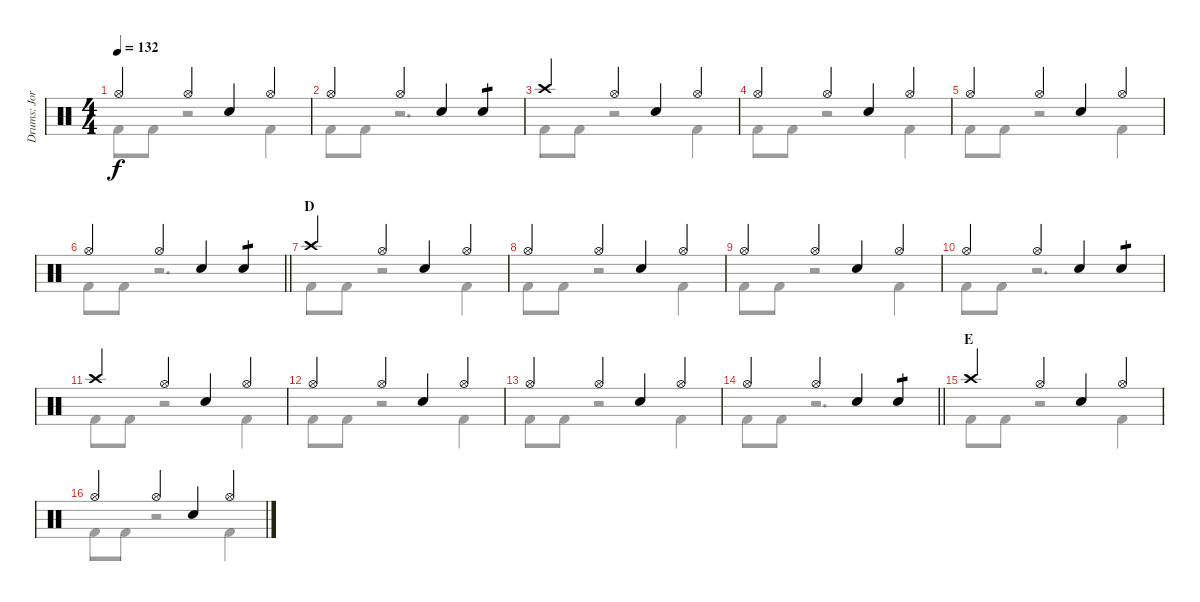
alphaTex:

\track ("Drums: Jorg" "Drums: Jor") {instrument percussion}
\staff {score}
\articulation defaults
\voice
\ts (4 4)
\tempo 132
\clef neutral
\ks c "Hi-Hat (open)".4{dy f} "Hi-Hat (open)".4 "Snare (hit) 2".4 "Hi-Hat (open)".4
|
"Hi-Hat (open)".4 "Hi-Hat (open)".4 "Snare (hit) 2".4 "Snare (hit) 2".4{tp 1} |
"Crash high (hit)".4 "Hi-Hat (open)".4 "Snare (hit) 2".4 "Hi-Hat (open)".4 |
"Hi-Hat (open)".4 "Hi-Hat (open)".4 "Snare (hit) 2".4 "Hi-Hat (open)".4 |
"Hi-Hat (open)".4 "Hi-Hat (open)".4 "Snare (hit) 2".4 "Hi-Hat (open)".4 |
\barLineRight lightlight "Hi-Hat (open)".4 "Hi-Hat (open)".4 "Snare (hit) 2".4 "Snare (hit) 2".4{tp 1}
|
\section ("" "D")
"Crash high (hit)".4 "Hi-Hat (open)".4 "Snare (hit) 2".4 "Hi-Hat (open)".4 |
"Hi-Hat (open)".4 "Hi-Hat (open)".4 "Snare (hit) 2".4 "Hi-Hat (open)".4 |
"Hi-Hat (open)".4 "Hi-Hat (open)".4 "Snare (hit) 2".4 "Hi-Hat (open)".4 |
"Hi-Hat (open)".4 "Hi-Hat (open)".4 "Snare (hit) 2".4 "Snare (hit) 2".4{tp 1} |
"Crash high (hit)".4 "Hi-Hat (open)".4 "Snare (hit) 2".4 "Hi-Hat (open)".4 |
"Hi-Hat (open)".4 "Hi-Hat (open)".4 "Snare (hit) 2".4 "Hi-Hat (open)".4 |
"Hi-Hat (open)".4 "Hi-Hat (open)".4 "Snare (hit) 2".4 "Hi-Hat (open)".4 |
\barLineRight lightlight "Hi-Hat (open)".4 "Hi-Hat (open)".4 "Snare (hit) 2".4 "Snare (hit) 2".4{tp 1}
|
\section ("" "E")
"Crash high (hit)".4 "Hi-Hat (open)".4 "Snare (hit) 2".4 "Hi-Hat (open)".4 |
"Hi-Hat (open)".4 "Hi-Hat (open)".4 "Snare (hit) 2".4 "Hi-Hat (open)".4
\voice
\clef neutral
\ottava regular
\simile none
\ks c "Kick (hit) 2".8{dy f} "Kick (hit) 2".8
r.2 "Kick (hit) 2".4 |
"Kick (hit) 2".8 "Kick (hit) 2".8 r.2{d} |
"Kick (hit) 2".8 "Kick (hit) 2".8 r.2 "Kick (hit) 2".4 |
"Kick (hit) 2".8 "Kick (hit) 2".8 r.2 "Kick (hit) 2".4 |
"Kick (hit) 2".8 "Kick (hit) 2".8 r.2 "Kick (hit) 2".4 |
\barLineRight lightlight "Kick (hit) 2".8 "Kick (hit) 2".8
r.2{d} |
"Kick (hit) 2".8 "Kick (hit) 2".8 r.2 "Kick (hit) 2".4 |
"Kick (hit) 2".8 "Kick (hit) 2".8 r.2 "Kick (hit) 2".4 |
"Kick (hit) 2".8 "Kick (hit) 2".8 r.2 "Kick (hit) 2".4 |
"Kick (hit) 2".8 "Kick (hit) 2".8 r.2{d} |
"Kick (hit) 2".8 "Kick (hit) 2".8 r.2 "Kick (hit) 2".4 |
"Kick (hit) 2".8 "Kick (hit) 2".8 r.2 "Kick (hit) 2".4 |
"Kick (hit) 2".8 "Kick (hit) 2".8 r.2 "Kick (hit) 2".4 |
\barLineRight lightlight "Kick (hit) 2".8 "Kick (hit) 2".8
r.2{d} |
"Kick (hit) 2".8 "Kick (hit) 2".8 r.2 "Kick (hit) 2".4 |
"Kick (hit) 2".8 "Kick (hit) 2".8 r.2 "Kick (hit) 2".4
